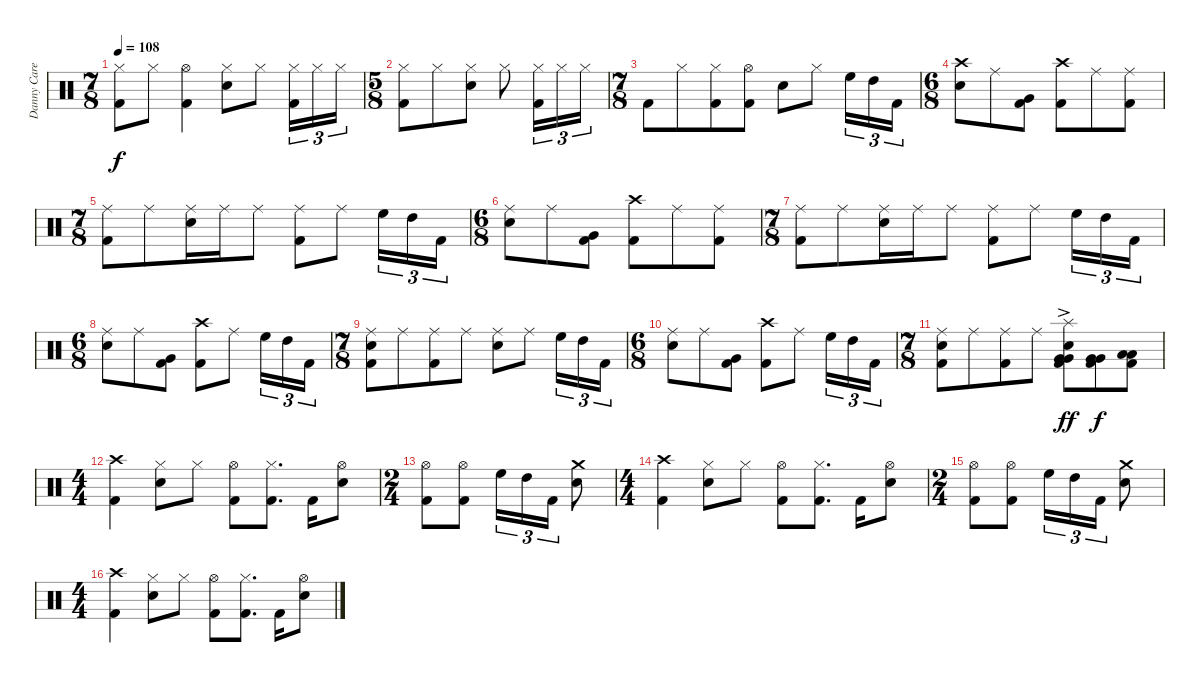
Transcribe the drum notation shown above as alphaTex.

\track ("Danny Carey" "Danny Care") {instrument percussion}
\staff {score}
\articulation defaults
\ts (7 8)
\tempo 108
\clef neutral
\ks c
("Hi-Hat (closed)" "Kick (hit) 2").8{dy f} "Hi-Hat (closed)".8 ("Hi-Hat (open)" "Kick (hit) 2").4 ("Hi-Hat (closed)" "Electric Snare (hit)").8 "Hi-Hat (closed)".8 ("Hi-Hat (closed)" "Kick (hit) 2").16{tu (3 2)} "Hi-Hat (closed)".16{tu (3 2)} "Hi-Hat (closed)".16{tu (3 2)} |
\ts (5 8)
("Hi-Hat (closed)" "Kick (hit) 2").8 "Hi-Hat (closed)".8 ("Hi-Hat (closed)" "Electric Snare (hit)").8 "Hi-Hat (closed)".8 ("Hi-Hat (closed)" "Kick (hit) 2").16{tu (3 2)} "Hi-Hat (closed)".16{tu (3 2)} "Hi-Hat (closed)".16{tu (3 2)} |
\ts (7 8)
"Kick (hit) 2".8 "Hi-Hat (closed)".8 ("Hi-Hat (closed)" "Kick (hit) 2").8 ("Hi-Hat (open)" "Kick (hit) 2").8 "Electric Snare (hit)".8 "Hi-Hat (closed)".8 "High Floor Tom (hit)".16{tu (3 2)} "High Tom (hit)".16{tu (3 2)} "Kick (hit) 2".16{tu (3 2)} |
\ts (6 8)
("Crash high (hit)" "Electric Snare (hit)").8 "Ride (middle)".8 ("Very Low Tom (hit)" "Kick (hit) 2").8 ("Crash high (hit)" "Kick (hit) 2").8 "Ride (middle)".8 ("Ride (middle)" "Kick (hit) 2").8 |
\ts (7 8)
("Ride (middle)" "Kick (hit) 2").8 "Ride (middle)".8 ("Ride (middle)" "Electric Snare (hit)").16 "Ride (middle)".16 "Ride (middle)".8 ("Ride (middle)" "Kick (hit) 2").8 "Ride (middle)".8 "High Floor Tom (hit)".16{tu (3 2)} "High Tom (hit)".16{tu (3 2)} "Kick (hit) 2".16{tu (3 2)} |
\ts (6 8)
("Ride (middle)" "Electric Snare (hit)").8 "Ride (middle)".8 ("Very Low Tom (hit)" "Kick (hit) 2").8 ("Crash high (hit)" "Kick (hit) 2").8 "Ride (middle)".8 ("Ride (middle)" "Kick (hit) 2").8 |
\ts (7 8)
("Ride (middle)" "Kick (hit) 2").8 "Ride (middle)".8 ("Ride (middle)" "Electric Snare (hit)").16 "Ride (middle)".16 "Ride (middle)".8 ("Ride (middle)" "Kick (hit) 2").8 "Ride (middle)".8 "High Floor Tom (hit)".16{tu (3 2)} "High Tom (hit)".16{tu (3 2)} "Kick (hit) 2".16{tu (3 2)} |
\ts (6 8)
("Ride (middle)" "Electric Snare (hit)").8 "Ride (middle)".8 ("Very Low Tom (hit)" "Kick (hit) 2").8 ("Crash high (hit)" "Kick (hit) 2").8 "Ride (middle)".8 "High Floor Tom (hit)".16{tu (3 2)} "High Tom (hit)".16{tu (3 2)} "Kick (hit) 2".16{tu (3 2)} |
\ts (7 8)
("Ride (middle)" "Electric Snare (hit)" "Kick (hit) 2").8 "Ride (middle)".8 ("Ride (middle)" "Kick (hit) 2").8 "Ride (middle)".8 ("Ride (middle)" "Electric Snare (hit)").8 "Ride (middle)".8 "High Floor Tom (hit)".16{tu (3 2)} "High Tom (hit)".16{tu (3 2)} "Kick (hit) 2".16{tu (3 2)} |
\ts (6 8)
("Ride (middle)" "Electric Snare (hit)").8 "Ride (middle)".8 ("Very Low Tom (hit)" "Kick (hit) 2").8 ("Crash high (hit)" "Kick (hit) 2").8 "Ride (middle)".8 "High Floor Tom (hit)".16{tu (3 2)} "High Tom (hit)".16{tu (3 2)} "Kick (hit) 2".16{tu (3 2)} |
\ts (7 8)
("Ride (middle)" "Electric Snare (hit)" "Kick (hit) 2").8 "Ride (middle)".8 ("Ride (middle)" "Kick (hit) 2").8 "Ride (middle)".8 ("Splash (hit)" "Very Low Tom (hit)" "Very Low Tom (hit)" "Electric Snare (hit)" "Kick (hit) 2"{ac}).8{dy ff} ("Very Low Tom (hit)" "Very Low Tom (hit)" "Kick (hit) 2").8{dy f} ("Low Floor Tom (hit)" "Low Floor Tom (hit)" "Kick (hit) 2").8 |
\ts (4 4)
("Crash high (hit)" "Kick (hit) 2").4 ("Hi-Hat (closed)" "Electric Snare (hit)").8 "Hi-Hat (closed)".8 ("Hi-Hat (open)" "Kick (hit) 2").8 ("Hi-Hat (closed)" "Kick (hit) 2").8{d} "Kick (hit) 2".16 ("Hi-Hat (open)" "Electric Snare (hit)").8 |
\ts (2 4)
("Hi-Hat (open)" "Kick (hit) 2").8 ("Hi-Hat (open)" "Kick (hit) 2").8 "High Floor Tom (hit)".16{tu (3 2)} "High Tom (hit)".16{tu (3 2)} "Kick (hit) 2".16{tu (3 2)} ("Crash medium (hit)" "Electric Snare (hit)").8 |
\ts (4 4)
("Crash high (hit)" "Kick (hit) 2").4 ("Hi-Hat (closed)" "Electric Snare (hit)").8 "Hi-Hat (closed)".8 ("Hi-Hat (open)" "Kick (hit) 2").8 ("Hi-Hat (closed)" "Kick (hit) 2").8{d} "Kick (hit) 2".16 ("Hi-Hat (open)" "Electric Snare (hit)").8 |
\ts (2 4)
("Hi-Hat (open)" "Kick (hit) 2").8 ("Hi-Hat (open)" "Kick (hit) 2").8 "High Floor Tom (hit)".16{tu (3 2)} "High Tom (hit)".16{tu (3 2)} "Kick (hit) 2".16{tu (3 2)} ("Crash medium (hit)" "Electric Snare (hit)").8 |
\ts (4 4)
("Crash high (hit)" "Kick (hit) 2").4 ("Hi-Hat (closed)" "Electric Snare (hit)").8 "Hi-Hat (closed)".8 ("Hi-Hat (open)" "Kick (hit) 2").8 ("Hi-Hat (closed)" "Kick (hit) 2").8{d} "Kick (hit) 2".16 ("Hi-Hat (open)" "Electric Snare (hit)").8
